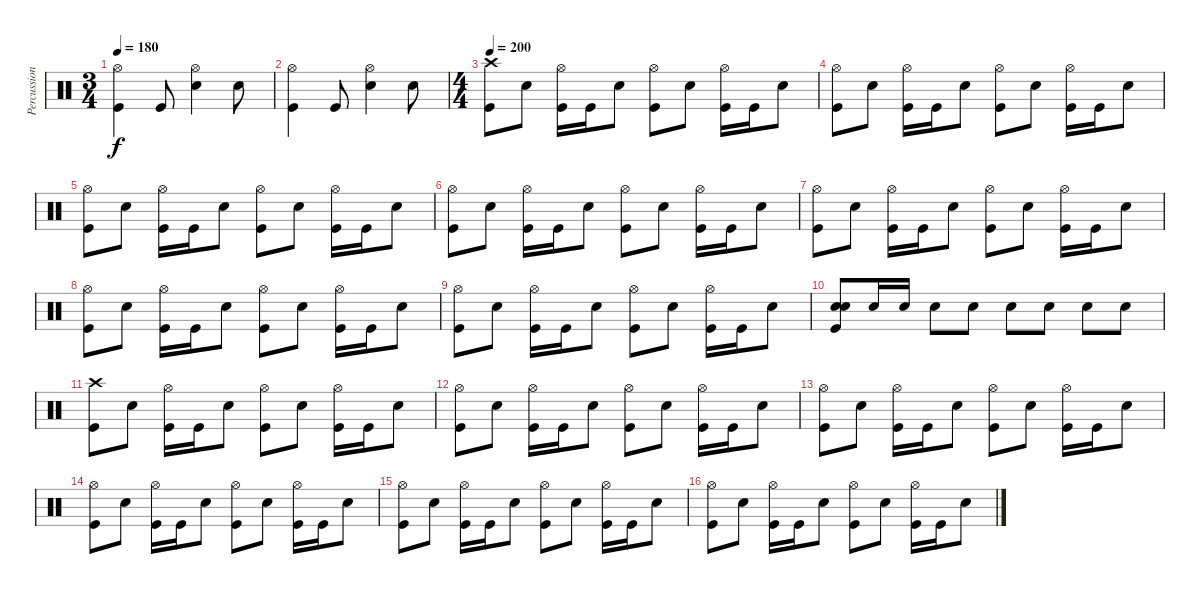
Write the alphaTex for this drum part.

\track ("Percussion" "Percussion") {instrument percussion}
\staff {score}
\articulation defaults
\ts (3 4)
\tempo 180
\clef neutral
\ks c
("Hi-Hat (open)" "Kick (hit)").4{dy f} "Kick (hit)".8 ("Hi-Hat (open)" "Snare (hit) 2").4 "Snare (hit) 2".8 |
("Hi-Hat (open)" "Kick (hit)").4 "Kick (hit)".8 ("Hi-Hat (open)" "Snare (hit) 2").4 "Snare (hit) 2".8 |
\ts (4 4)
\tempo 200
("Crash high (hit)" "Kick (hit)").8 "Snare (hit) 2".8 ("Hi-Hat (open)" "Kick (hit)").16 "Kick (hit)".16 "Snare (hit) 2".8 ("Hi-Hat (open)" "Kick (hit)").8 "Snare (hit) 2".8 ("Hi-Hat (open)" "Kick (hit)").16 "Kick (hit)".16 "Snare (hit) 2".8 |
("Hi-Hat (open)" "Kick (hit)").8 "Snare (hit) 2".8 ("Hi-Hat (open)" "Kick (hit)").16 "Kick (hit)".16 "Snare (hit) 2".8 ("Hi-Hat (open)" "Kick (hit)").8 "Snare (hit) 2".8 ("Hi-Hat (open)" "Kick (hit)").16 "Kick (hit)".16 "Snare (hit) 2".8 |
("Hi-Hat (open)" "Kick (hit)").8 "Snare (hit) 2".8 ("Hi-Hat (open)" "Kick (hit)").16 "Kick (hit)".16 "Snare (hit) 2".8 ("Hi-Hat (open)" "Kick (hit)").8 "Snare (hit) 2".8 ("Hi-Hat (open)" "Kick (hit)").16 "Kick (hit)".16 "Snare (hit) 2".8 |
("Hi-Hat (open)" "Kick (hit)").8 "Snare (hit) 2".8 ("Hi-Hat (open)" "Kick (hit)").16 "Kick (hit)".16 "Snare (hit) 2".8 ("Hi-Hat (open)" "Kick (hit)").8 "Snare (hit) 2".8 ("Hi-Hat (open)" "Kick (hit)").16 "Kick (hit)".16 "Snare (hit) 2".8 |
("Hi-Hat (open)" "Kick (hit)").8 "Snare (hit) 2".8 ("Hi-Hat (open)" "Kick (hit)").16 "Kick (hit)".16 "Snare (hit) 2".8 ("Hi-Hat (open)" "Kick (hit)").8 "Snare (hit) 2".8 ("Hi-Hat (open)" "Kick (hit)").16 "Kick (hit)".16 "Snare (hit) 2".8 |
("Hi-Hat (open)" "Kick (hit)").8 "Snare (hit) 2".8 ("Hi-Hat (open)" "Kick (hit)").16 "Kick (hit)".16 "Snare (hit) 2".8 ("Hi-Hat (open)" "Kick (hit)").8 "Snare (hit) 2".8 ("Hi-Hat (open)" "Kick (hit)").16 "Kick (hit)".16 "Snare (hit) 2".8 |
("Hi-Hat (open)" "Kick (hit)").8 "Snare (hit) 2".8 ("Hi-Hat (open)" "Kick (hit)").16 "Kick (hit)".16 "Snare (hit) 2".8 ("Hi-Hat (open)" "Kick (hit)").8 "Snare (hit) 2".8 ("Hi-Hat (open)" "Kick (hit)").16 "Kick (hit)".16 "Snare (hit) 2".8 |
("Snare (hit) 2" "Snare (hit) 2" "Kick (hit)").8 "Snare (hit) 2".16 "Snare (hit) 2".16 "Snare (hit) 2".8 "Snare (hit) 2".8 "Snare (hit) 2".8 "Snare (hit) 2".8 "Snare (hit) 2".8 "Snare (hit) 2".8 |
("Crash high (hit)" "Kick (hit)").8 "Snare (hit) 2".8 ("Hi-Hat (open)" "Kick (hit)").16 "Kick (hit)".16 "Snare (hit) 2".8 ("Hi-Hat (open)" "Kick (hit)").8 "Snare (hit) 2".8 ("Hi-Hat (open)" "Kick (hit)").16 "Kick (hit)".16 "Snare (hit) 2".8 |
("Hi-Hat (open)" "Kick (hit)").8 "Snare (hit) 2".8 ("Hi-Hat (open)" "Kick (hit)").16 "Kick (hit)".16 "Snare (hit) 2".8 ("Hi-Hat (open)" "Kick (hit)").8 "Snare (hit) 2".8 ("Hi-Hat (open)" "Kick (hit)").16 "Kick (hit)".16 "Snare (hit) 2".8 |
("Hi-Hat (open)" "Kick (hit)").8 "Snare (hit) 2".8 ("Hi-Hat (open)" "Kick (hit)").16 "Kick (hit)".16 "Snare (hit) 2".8 ("Hi-Hat (open)" "Kick (hit)").8 "Snare (hit) 2".8 ("Hi-Hat (open)" "Kick (hit)").16 "Kick (hit)".16 "Snare (hit) 2".8 |
("Hi-Hat (open)" "Kick (hit)").8 "Snare (hit) 2".8 ("Hi-Hat (open)" "Kick (hit)").16 "Kick (hit)".16 "Snare (hit) 2".8 ("Hi-Hat (open)" "Kick (hit)").8 "Snare (hit) 2".8 ("Hi-Hat (open)" "Kick (hit)").16 "Kick (hit)".16 "Snare (hit) 2".8 |
("Hi-Hat (open)" "Kick (hit)").8 "Snare (hit) 2".8 ("Hi-Hat (open)" "Kick (hit)").16 "Kick (hit)".16 "Snare (hit) 2".8 ("Hi-Hat (open)" "Kick (hit)").8 "Snare (hit) 2".8 ("Hi-Hat (open)" "Kick (hit)").16 "Kick (hit)".16 "Snare (hit) 2".8 |
("Hi-Hat (open)" "Kick (hit)").8 "Snare (hit) 2".8 ("Hi-Hat (open)" "Kick (hit)").16 "Kick (hit)".16 "Snare (hit) 2".8 ("Hi-Hat (open)" "Kick (hit)").8 "Snare (hit) 2".8 ("Hi-Hat (open)" "Kick (hit)").16 "Kick (hit)".16 "Snare (hit) 2".8
